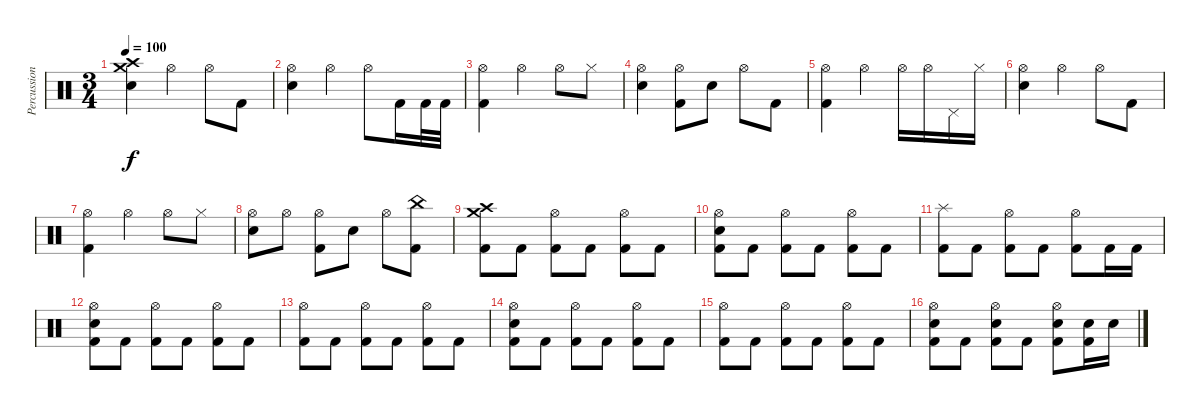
\track ("Percussion" "Percussion") {instrument percussion}
\staff {score}
\articulation defaults
\ts (3 4)
\tempo 100
\clef neutral
\ks c
("Crash high (hit)" "Crash medium (hit)" "Hand Clap (hit)").4{dy f} "Hi-Hat (open)".4 "Hi-Hat (open)".8 "Kick (hit) 2".8 |
("Hi-Hat (open)" "Electric Snare (hit)").4 "Hi-Hat (open)".4 "Hi-Hat (open)".8 "Kick (hit) 2".16 "Kick (hit) 2".32 "Kick (hit) 2".32 |
("Hi-Hat (open)" "Kick (hit) 2").4 "Hi-Hat (open)".4 "Hi-Hat (open)".8 "Hi-Hat (closed)".8 |
("Hi-Hat (open)" "Electric Snare (hit)").4 ("Hi-Hat (open)" "Kick (hit) 2").8 "Electric Snare (hit)".8 "Hi-Hat (open)".8 "Kick (hit) 2".8 |
("Hi-Hat (open)" "Kick (hit) 2").4 "Hi-Hat (open)".4 "Hi-Hat (open)".16 "Hi-Hat (open)".16 "Pedal Hi-Hat (hit)".16 "Hi-Hat (closed)".16 |
("Hi-Hat (open)" "Electric Snare (hit)").4 "Hi-Hat (open)".4 "Hi-Hat (open)".8 "Kick (hit) 2".8 |
("Hi-Hat (open)" "Kick (hit) 2").4 "Hi-Hat (open)".4 "Hi-Hat (open)".8 "Hi-Hat (closed)".8 |
("Hi-Hat (open)" "Electric Snare (hit)").8 "Hi-Hat (open)".8 ("Hi-Hat (open)" "Kick (hit) 2").8 "Electric Snare (hit)".8 "Hi-Hat (open)".8 ("China (hit)" "Kick (hit) 2").8 |
("Crash high (hit)" "Crash medium (hit)" "Kick (hit) 2").8 "Kick (hit) 2".8 ("Hi-Hat (open)" "Kick (hit) 2").8 "Kick (hit) 2".8 ("Hi-Hat (open)" "Kick (hit) 2").8 "Kick (hit) 2".8 |
("Hi-Hat (open)" "Electric Snare (hit)" "Kick (hit) 2").8 "Kick (hit) 2".8 ("Hi-Hat (open)" "Kick (hit) 2").8 "Kick (hit) 2".8 ("Hi-Hat (open)" "Kick (hit) 2").8 "Kick (hit) 2".8 |
("Splash (hit)" "Kick (hit) 2").8 "Kick (hit) 2".8 ("Hi-Hat (open)" "Kick (hit) 2").8 "Kick (hit) 2".8 ("Hi-Hat (open)" "Kick (hit) 2").8 "Kick (hit) 2".16 "Kick (hit) 2".16 |
("Hi-Hat (open)" "Electric Snare (hit)" "Kick (hit) 2").8 "Kick (hit) 2".8 ("Hi-Hat (open)" "Kick (hit) 2").8 "Kick (hit) 2".8 ("Hi-Hat (open)" "Kick (hit) 2").8 "Kick (hit) 2".8 |
("Hi-Hat (open)" "Kick (hit) 2").8 "Kick (hit) 2".8 ("Hi-Hat (open)" "Kick (hit) 2").8 "Kick (hit) 2".8 ("Hi-Hat (open)" "Kick (hit) 2").8 "Kick (hit) 2".8 |
("Hi-Hat (open)" "Electric Snare (hit)" "Kick (hit) 2").8 "Kick (hit) 2".8 ("Hi-Hat (open)" "Kick (hit) 2").8 "Kick (hit) 2".8 ("Hi-Hat (open)" "Kick (hit) 2").8 "Kick (hit) 2".8 |
("Hi-Hat (open)" "Kick (hit) 2").8 "Kick (hit) 2".8 ("Hi-Hat (open)" "Kick (hit) 2").8 "Kick (hit) 2".8 ("Hi-Hat (open)" "Kick (hit) 2").8 "Kick (hit) 2".8 |
("Hi-Hat (open)" "Electric Snare (hit)" "Kick (hit) 2").8 "Kick (hit) 2".8 ("Hi-Hat (open)" "Electric Snare (hit)" "Kick (hit) 2").8 "Kick (hit) 2".8 ("Hi-Hat (open)" "Electric Snare (hit)" "Kick (hit) 2").8 ("Electric Snare (hit)" "Kick (hit) 2").16 "Electric Snare (hit)".16
